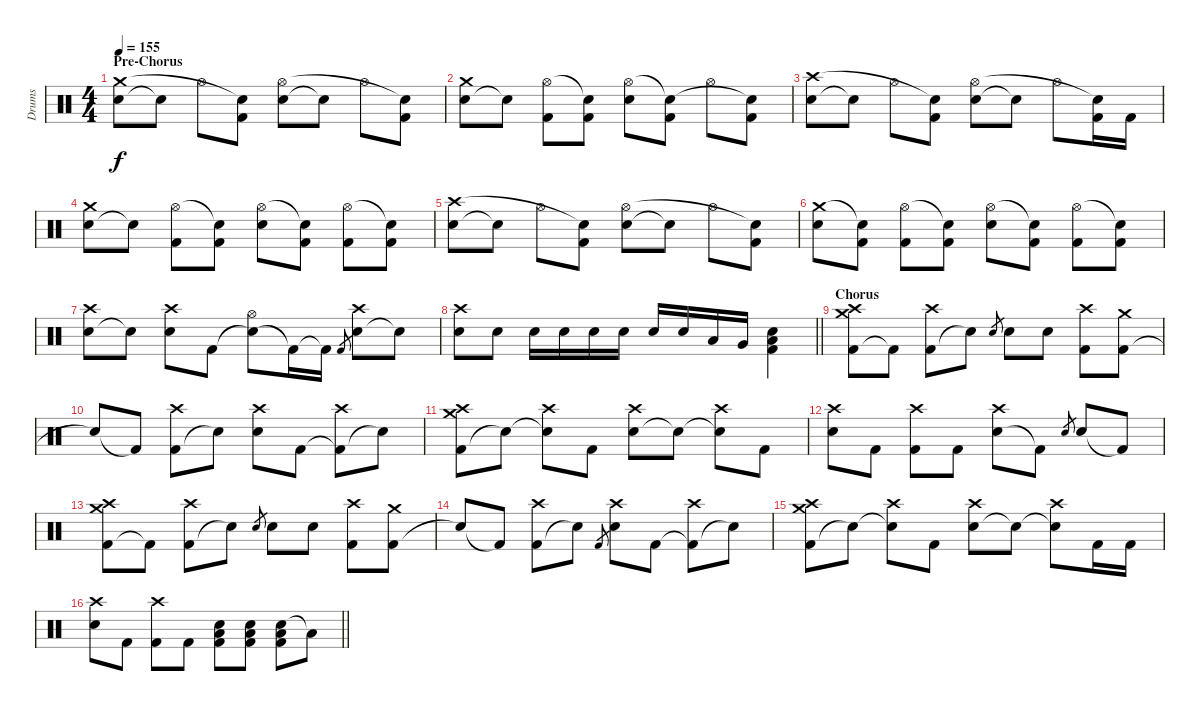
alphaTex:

\track ("Drums" "Drums") {instrument percussion}
\staff {score}
\articulation defaults
\ts (4 4)
\section ("" "Pre-Chorus")
\tempo 155
\clef neutral
\ks c
("Electric Snare (hit)" "Crash medium (hit)").8{dy f} "Snare (hit)"{t}.8 "Hi-Hat (open)".8 ("Kick (hit) 2" "Snare (hit)"{t}).8 ("Electric Snare (hit)" "Hi-Hat (open)").8 "Snare (hit)"{t}.8 "Hi-Hat (open)".8 ("Kick (hit) 2" "Snare (hit)"{t}).8 |
("Electric Snare (hit)" "Crash medium (hit)").8 "Snare (hit)"{t}.8 ("Kick (hit) 2" "Hi-Hat (open)").8 ("Kick (hit) 2" "Snare (hit)"{t}).8 ("Electric Snare (hit)" "Hi-Hat (open)").8 ("Kick (hit) 2" "Snare (hit)"{t}).8 "Hi-Hat (open)".8 ("Kick (hit) 2" "Snare (hit)"{t}).8 |
("Electric Snare (hit)" "Crash high (hit)").8 "Snare (hit)"{t}.8 "Hi-Hat (open)".8 ("Kick (hit) 2" "Snare (hit)"{t}).8 ("Electric Snare (hit)" "Hi-Hat (open)").8 "Snare (hit)"{t}.8 "Hi-Hat (open)".8 ("Kick (hit) 2" "Snare (hit)"{t}).16 "Kick (hit) 2".16 |
("Electric Snare (hit)" "Crash medium (hit)").8 "Snare (hit)"{t}.8 ("Kick (hit) 2" "Hi-Hat (open)").8 ("Kick (hit) 2" "Snare (hit)"{t}).8 ("Electric Snare (hit)" "Hi-Hat (open)").8 ("Kick (hit) 2" "Snare (hit)"{t}).8 ("Kick (hit) 2" "Hi-Hat (open)").8 ("Kick (hit) 2" "Snare (hit)"{t}).8 |
("Electric Snare (hit)" "Crash high (hit)").8 "Snare (hit)"{t}.8 "Hi-Hat (open)".8 ("Kick (hit) 2" "Snare (hit)"{t}).8 ("Electric Snare (hit)" "Hi-Hat (open)").8 "Snare (hit)"{t}.8 "Hi-Hat (open)".8 ("Kick (hit) 2" "Snare (hit)"{t}).8 |
("Electric Snare (hit)" "Crash medium (hit)").8 ("Kick (hit) 2" "Snare (hit)"{t}).8 ("Kick (hit) 2" "Hi-Hat (open)").8 ("Kick (hit) 2" "Snare (hit)"{t}).8 ("Electric Snare (hit)" "Hi-Hat (open)").8 ("Kick (hit) 2" "Snare (hit)"{t}).8 ("Kick (hit) 2" "Hi-Hat (open)").8 ("Kick (hit) 2" "Snare (hit)"{t}).8 |
("Electric Snare (hit)" "Crash high (hit)").8 "Snare (hit)"{t}.8 ("Electric Snare (hit)" "Crash high (hit)").8 "Kick (hit) 2".8 ("Snare (hit)"{t} "Hi-Hat (open)").8 "Kick (hit) 2"{t}.16 "Kick (hit) 2"{t}.16 "Kick (hit) 2".8{gr} ("Electric Snare (hit)" "Crash high (hit)").8 "Snare (hit)"{t}.8 |
\barLineRight lightlight
("Electric Snare (hit)" "Crash high (hit)").8 "Electric Snare (hit)".8 "Electric Snare (hit)".16 "Electric Snare (hit)".16 "Electric Snare (hit)".16 "Electric Snare (hit)".16 "Electric Snare (hit)".16 "Electric Snare (hit)".16 "Low Tom (hit)".16 "Very Low Tom (hit)".16 ("Electric Snare (hit)" "Low Floor Tom (hit)" "Kick (hit) 2").4 |
\section ("" "Chorus")
("Kick (hit) 2" "Crash high (hit)" "Crash medium (hit)").8 "Kick (hit) 2"{t}.8 ("Kick (hit) 2" "Crash high (hit)").8 "Electric Snare (hit)"{t}.8 "Electric Snare (hit)".8{gr} "Electric Snare (hit)".8 "Electric Snare (hit)".8 ("Kick (hit) 2" "Crash high (hit)").8 ("Kick (hit) 2" "Crash medium (hit)").8 |
"Snare (hit)"{t}.8 "Kick (hit) 2"{t}.8 ("Kick (hit) 2" "Crash high (hit)").8 "Snare (hit)"{t}.8 ("Electric Snare (hit)" "Crash high (hit)").8 "Kick (hit) 2".8 ("Kick (hit) 2"{t} "Crash high (hit)").8 "Snare (hit)"{t}.8 |
("Kick (hit) 2" "Crash high (hit)" "Crash medium (hit)").8 "Snare (hit)"{t}.8 ("Snare (hit)"{t} "Crash high (hit)").8 "Kick (hit) 2".8 ("Electric Snare (hit)" "Crash high (hit)").8 "Snare (hit)"{t}.8 ("Snare (hit)"{t} "Crash high (hit)").8 "Kick (hit) 2".8 |
("Electric Snare (hit)" "Crash high (hit)").8 "Kick (hit) 2".8 ("Kick (hit) 2" "Crash high (hit)").8 "Kick (hit) 2".8 ("Electric Snare (hit)" "Crash high (hit)").8 "Kick (hit) 2"{t}.8 "Electric Snare (hit)".8{gr} "Electric Snare (hit)".8 "Kick (hit) 2"{t}.8 |
("Kick (hit) 2" "Crash high (hit)" "Crash medium (hit)").8 "Kick (hit) 2"{t}.8 ("Kick (hit) 2" "Crash high (hit)").8 "Electric Snare (hit)"{t}.8 "Electric Snare (hit)".8{gr} "Electric Snare (hit)".8 "Electric Snare (hit)".8 ("Kick (hit) 2" "Crash high (hit)").8 ("Kick (hit) 2" "Crash medium (hit)").8 |
"Snare (hit)"{t}.8 "Kick (hit) 2"{t}.8 ("Kick (hit) 2" "Crash high (hit)").8 "Snare (hit)"{t}.8 "Kick (hit) 2".8{gr} ("Electric Snare (hit)" "Crash high (hit)").8 "Kick (hit) 2".8 ("Kick (hit) 2"{t} "Crash high (hit)").8 "Snare (hit)"{t}.8 |
("Kick (hit) 2" "Crash high (hit)" "Crash medium (hit)").8 "Snare (hit)"{t}.8 ("Snare (hit)"{t} "Crash high (hit)").8 "Kick (hit) 2".8 ("Electric Snare (hit)" "Crash high (hit)").8 "Snare (hit)"{t}.8 ("Snare (hit)"{t} "Crash high (hit)").8 "Kick (hit) 2".16 "Kick (hit) 2".16 |
\barLineRight lightlight
("Electric Snare (hit)" "Crash high (hit)").8 "Kick (hit) 2".8 ("Kick (hit) 2" "Crash high (hit)").8 "Kick (hit) 2".8 ("Electric Snare (hit)" "Low Floor Tom (hit)" "Kick (hit) 2").8 ("Electric Snare (hit)" "Low Floor Tom (hit)" "Kick (hit) 2").8 ("Electric Snare (hit)" "Low Floor Tom (hit)" "Kick (hit) 2").8 "Low Floor Tom (hit)"{t}.8
